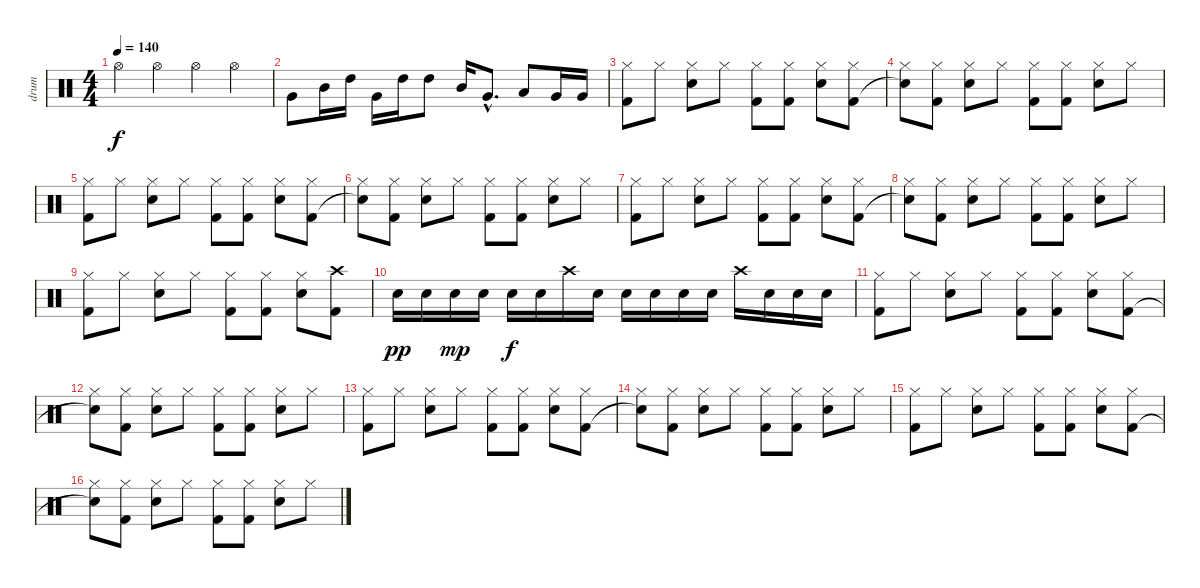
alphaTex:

\track ("drum" "drum") {instrument percussion}
\staff {score}
\articulation defaults
\ts (4 4)
\tempo 140
\clef neutral
\ks c "Hi-Hat (open)".4{dy f} "Hi-Hat (open)".4 "Hi-Hat (open)".4 "Hi-Hat (open)".4
|
"Very Low Tom (hit)".8 "Mid Tom (hit)".16 "High Tom (hit)".16 "Very Low Tom (hit)".16 "High Tom (hit)".16 "High Tom (hit)".8 "Mid Tom (hit)".16 "Very Low Tom (hit)"{hac}.8{d} "Low Tom (hit)".8 "Very Low Tom (hit)".16 "Very Low Tom (hit)".16 |
("Hi-Hat (closed)" "Kick (hit) 2").8 "Hi-Hat (closed)".8 ("Hi-Hat (closed)" "Snare (hit) 2").8 "Hi-Hat (closed)".8 ("Hi-Hat (closed)" "Kick (hit) 2").8 ("Hi-Hat (closed)" "Kick (hit) 2").8 ("Hi-Hat (closed)" "Snare (hit) 2").8 ("Hi-Hat (closed)" "Kick (hit) 2").8 |
("Hi-Hat (closed)" "Snare (hit)"{t}).8 ("Hi-Hat (closed)" "Kick (hit) 2").8 ("Hi-Hat (closed)" "Snare (hit) 2").8 "Hi-Hat (closed)".8 ("Hi-Hat (closed)" "Kick (hit) 2").8 ("Hi-Hat (closed)" "Kick (hit) 2").8 ("Hi-Hat (closed)" "Snare (hit) 2").8 "Hi-Hat (closed)".8 |
("Hi-Hat (closed)" "Kick (hit) 2").8 "Hi-Hat (closed)".8 ("Hi-Hat (closed)" "Snare (hit) 2").8 "Hi-Hat (closed)".8 ("Hi-Hat (closed)" "Kick (hit) 2").8 ("Hi-Hat (closed)" "Kick (hit) 2").8 ("Hi-Hat (closed)" "Snare (hit) 2").8 ("Hi-Hat (closed)" "Kick (hit) 2").8 |
("Hi-Hat (closed)" "Snare (hit)"{t}).8 ("Hi-Hat (closed)" "Kick (hit) 2").8 ("Hi-Hat (closed)" "Snare (hit) 2").8 "Hi-Hat (closed)".8 ("Hi-Hat (closed)" "Kick (hit) 2").8 ("Hi-Hat (closed)" "Kick (hit) 2").8 ("Hi-Hat (closed)" "Snare (hit) 2").8 "Hi-Hat (closed)".8 |
("Hi-Hat (closed)" "Kick (hit) 2").8 "Hi-Hat (closed)".8 ("Hi-Hat (closed)" "Snare (hit) 2").8 "Hi-Hat (closed)".8 ("Hi-Hat (closed)" "Kick (hit) 2").8 ("Hi-Hat (closed)" "Kick (hit) 2").8 ("Hi-Hat (closed)" "Snare (hit) 2").8 ("Hi-Hat (closed)" "Kick (hit) 2").8 |
("Hi-Hat (closed)" "Snare (hit)"{t}).8 ("Hi-Hat (closed)" "Kick (hit) 2").8 ("Hi-Hat (closed)" "Snare (hit) 2").8 "Hi-Hat (closed)".8 ("Hi-Hat (closed)" "Kick (hit) 2").8 ("Hi-Hat (closed)" "Kick (hit) 2").8 ("Hi-Hat (closed)" "Snare (hit) 2").8 "Hi-Hat (closed)".8 |
("Hi-Hat (closed)" "Kick (hit) 2").8 "Hi-Hat (closed)".8 ("Hi-Hat (closed)" "Snare (hit) 2").8 "Hi-Hat (closed)".8 ("Hi-Hat (closed)" "Kick (hit) 2").8 ("Hi-Hat (closed)" "Kick (hit) 2").8 ("Hi-Hat (closed)" "Snare (hit) 2").8 ("Crash high (hit)" "Kick (hit) 2").8 |
"Snare (hit) 2".16{dy pp} "Snare (hit) 2".16 "Snare (hit) 2".16{dy mp} "Snare (hit) 2".16 "Snare (hit) 2".16{dy f} "Snare (hit) 2".16 "Crash high (hit)".16 "Snare (hit) 2".16 "Snare (hit) 2".16 "Snare (hit) 2".16 "Snare (hit) 2".16 "Snare (hit) 2".16 "Crash high (hit)".16 "Snare (hit) 2".16 "Snare (hit) 2".16 "Snare (hit) 2".16 |
("Hi-Hat (closed)" "Kick (hit) 2").8 "Hi-Hat (closed)".8 ("Hi-Hat (closed)" "Snare (hit) 2").8 "Hi-Hat (closed)".8 ("Hi-Hat (closed)" "Kick (hit) 2").8 ("Hi-Hat (closed)" "Kick (hit) 2").8 ("Hi-Hat (closed)" "Snare (hit) 2").8 ("Hi-Hat (closed)" "Kick (hit) 2").8 |
("Hi-Hat (closed)" "Snare (hit)"{t}).8 ("Hi-Hat (closed)" "Kick (hit) 2").8 ("Hi-Hat (closed)" "Snare (hit) 2").8 "Hi-Hat (closed)".8 ("Hi-Hat (closed)" "Kick (hit) 2").8 ("Hi-Hat (closed)" "Kick (hit) 2").8 ("Hi-Hat (closed)" "Snare (hit) 2").8 "Hi-Hat (closed)".8 |
("Hi-Hat (closed)" "Kick (hit) 2").8 "Hi-Hat (closed)".8 ("Hi-Hat (closed)" "Snare (hit) 2").8 "Hi-Hat (closed)".8 ("Hi-Hat (closed)" "Kick (hit) 2").8 ("Hi-Hat (closed)" "Kick (hit) 2").8 ("Hi-Hat (closed)" "Snare (hit) 2").8 ("Hi-Hat (closed)" "Kick (hit) 2").8 |
("Hi-Hat (closed)" "Snare (hit)"{t}).8 ("Hi-Hat (closed)" "Kick (hit) 2").8 ("Hi-Hat (closed)" "Snare (hit) 2").8 "Hi-Hat (closed)".8 ("Hi-Hat (closed)" "Kick (hit) 2").8 ("Hi-Hat (closed)" "Kick (hit) 2").8 ("Hi-Hat (closed)" "Snare (hit) 2").8 "Hi-Hat (closed)".8 |
("Hi-Hat (closed)" "Kick (hit) 2").8 "Hi-Hat (closed)".8 ("Hi-Hat (closed)" "Snare (hit) 2").8 "Hi-Hat (closed)".8 ("Hi-Hat (closed)" "Kick (hit) 2").8 ("Hi-Hat (closed)" "Kick (hit) 2").8 ("Hi-Hat (closed)" "Snare (hit) 2").8 ("Hi-Hat (closed)" "Kick (hit) 2").8 |
("Hi-Hat (closed)" "Snare (hit)"{t}).8 ("Hi-Hat (closed)" "Kick (hit) 2").8 ("Hi-Hat (closed)" "Snare (hit) 2").8 "Hi-Hat (closed)".8 ("Hi-Hat (closed)" "Kick (hit) 2").8 ("Hi-Hat (closed)" "Kick (hit) 2").8 ("Hi-Hat (closed)" "Snare (hit) 2").8 "Hi-Hat (closed)".8
